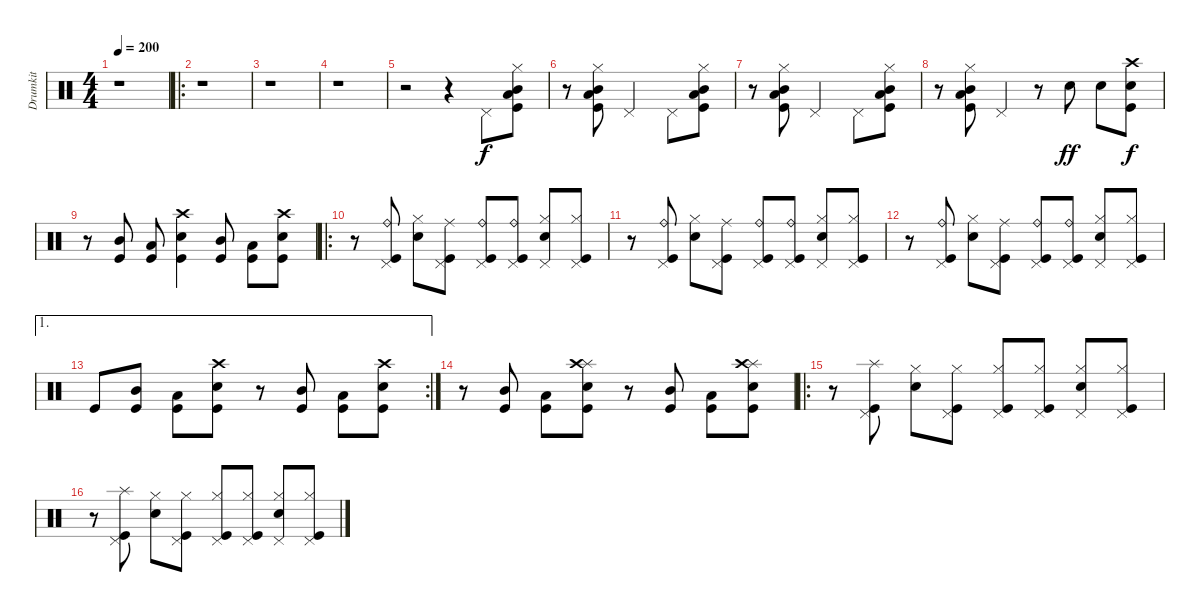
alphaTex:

\track ("Drumkit" "Drumkit") {instrument percussion}
\staff {score}
\articulation defaults
\ts (4 4)
\tempo 200
\clef neutral
\ks c
r.1{dy f} |
\ro
r.1 |
r.1 |
r.1 |
r.2 r.4 "Pedal Hi-Hat (hit)".8 ("Hi-Hat (closed)" "Low Tom (hit)" "Mid Tom (hit)" "Kick (hit)").8 |
r.8 ("Hi-Hat (closed)" "Low Tom (hit)" "Mid Tom (hit)" "Kick (hit)").8 "Pedal Hi-Hat (hit)".2 "Pedal Hi-Hat (hit)".8 ("Hi-Hat (closed)" "Low Tom (hit)" "Mid Tom (hit)" "Kick (hit)").8 |
r.8 ("Hi-Hat (closed)" "Low Tom (hit)" "Mid Tom (hit)" "Kick (hit)").8 "Pedal Hi-Hat (hit)".2 "Pedal Hi-Hat (hit)".8 ("Hi-Hat (closed)" "Low Tom (hit)" "Mid Tom (hit)" "Kick (hit)").8 |
r.8 ("Hi-Hat (closed)" "Low Tom (hit)" "Mid Tom (hit)" "Kick (hit)").8 "Pedal Hi-Hat (hit)".4 r.8 "Snare (hit) 2".8{dy ff} "Snare (hit) 2".8 ("Kick (hit)" "Crash high (hit)" "Snare (hit) 2").8{dy f} |
r.8 ("Mid Tom (hit)" "Kick (hit)").8 ("Low Tom (hit)" "Kick (hit)").8 ("Crash high (hit)" "Snare (hit) 2" "Kick (hit)").4 ("Mid Tom (hit)" "Kick (hit)").8 ("Low Tom (hit)" "Kick (hit)").8 ("Crash high (hit)" "Snare (hit) 2" "Kick (hit)").8 |
\ro
r.8 ("Ride (bell)" "Pedal Hi-Hat (hit)" "Kick (hit)").8 ("Hi-Hat (closed)" "Snare (hit) 2").8 ("Ride (middle)" "Pedal Hi-Hat (hit)" "Kick (hit)").8 ("Ride (bell)" "Pedal Hi-Hat (hit)" "Kick (hit)").8 ("Ride (bell)" "Pedal Hi-Hat (hit)" "Kick (hit)").8 ("Pedal Hi-Hat (hit)" "Hi-Hat (closed)" "Snare (hit) 2").8 ("Pedal Hi-Hat (hit)" "Hi-Hat (closed)" "Kick (hit)").8 |
r.8 ("Ride (bell)" "Pedal Hi-Hat (hit)" "Kick (hit)").8 ("Hi-Hat (closed)" "Snare (hit) 2").8 ("Ride (middle)" "Pedal Hi-Hat (hit)" "Kick (hit)").8 ("Ride (bell)" "Pedal Hi-Hat (hit)" "Kick (hit)").8 ("Ride (bell)" "Pedal Hi-Hat (hit)" "Kick (hit)").8 ("Pedal Hi-Hat (hit)" "Hi-Hat (closed)" "Snare (hit) 2").8 ("Pedal Hi-Hat (hit)" "Hi-Hat (closed)" "Kick (hit)").8 |
r.8 ("Ride (bell)" "Pedal Hi-Hat (hit)" "Kick (hit)").8 ("Hi-Hat (closed)" "Snare (hit) 2").8 ("Ride (middle)" "Pedal Hi-Hat (hit)" "Kick (hit)").8 ("Ride (bell)" "Pedal Hi-Hat (hit)" "Kick (hit)").8 ("Ride (bell)" "Pedal Hi-Hat (hit)" "Kick (hit)").8 ("Pedal Hi-Hat (hit)" "Hi-Hat (closed)" "Snare (hit) 2").8 ("Pedal Hi-Hat (hit)" "Hi-Hat (closed)" "Kick (hit)").8 |
\ae 1
\rc 2 "Kick (hit)".8
("Mid Tom (hit)" "Kick (hit)").8 ("Low Tom (hit)" "Kick (hit)").8 ("Crash high (hit)" "Snare (hit) 2" "Kick (hit)").8 r.8 ("Mid Tom (hit)" "Kick (hit)").8 ("Low Tom (hit)" "Kick (hit)").8 ("Crash high (hit)" "Snare (hit) 2" "Kick (hit)").8 |
r.8 ("Mid Tom (hit)" "Kick (hit)").8 ("Low Tom (hit)" "Kick (hit)").8 ("Splash (hit)" "Crash high (hit)" "Snare (hit) 2" "Kick (hit)").8 r.8 ("Mid Tom (hit)" "Kick (hit)").8 ("Low Tom (hit)" "Kick (hit)").8 ("Splash (hit)" "Crash high (hit)" "Snare (hit) 2" "Kick (hit)").8 |
\ro
r.8 ("Splash (hit)" "Pedal Hi-Hat (hit)" "Kick (hit)").8 ("Hi-Hat (closed)" "Snare (hit) 2").8 ("Pedal Hi-Hat (hit)" "Hi-Hat (closed)" "Kick (hit)").8 ("Pedal Hi-Hat (hit)" "Hi-Hat (closed)" "Kick (hit)").8 ("Pedal Hi-Hat (hit)" "Hi-Hat (closed)" "Kick (hit)").8 ("Pedal Hi-Hat (hit)" "Hi-Hat (closed)" "Snare (hit) 2").8 ("Pedal Hi-Hat (hit)" "Hi-Hat (closed)" "Kick (hit)").8 |
r.8 ("Splash (hit)" "Pedal Hi-Hat (hit)" "Kick (hit)").8 ("Hi-Hat (closed)" "Snare (hit) 2").8 ("Pedal Hi-Hat (hit)" "Hi-Hat (closed)" "Kick (hit)").8 ("Pedal Hi-Hat (hit)" "Hi-Hat (closed)" "Kick (hit)").8 ("Pedal Hi-Hat (hit)" "Hi-Hat (closed)" "Kick (hit)").8 ("Pedal Hi-Hat (hit)" "Hi-Hat (closed)" "Snare (hit) 2").8 ("Pedal Hi-Hat (hit)" "Hi-Hat (closed)" "Kick (hit)").8
